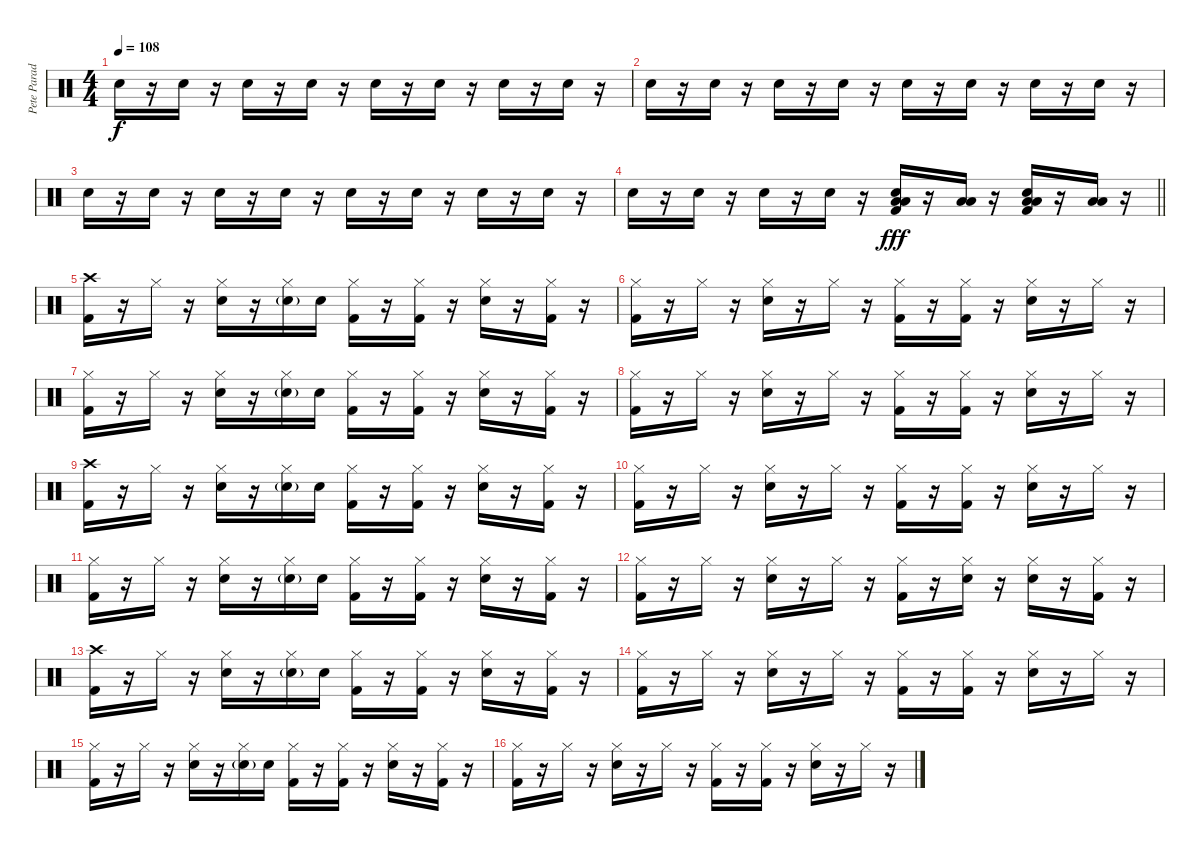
\track ("Pete Parada - Drums" "Pete Parad") {instrument percussion}
\staff {score}
\articulation defaults
\ts (4 4)
\tempo 108
\clef neutral
\ks c "Electric Snare (hit)".16{dy f}
r.16 "Electric Snare (hit)".16 r.16 "Electric Snare (hit)".16 r.16 "Electric Snare (hit)".16 r.16 "Electric Snare (hit)".16 r.16 "Electric Snare (hit)".16 r.16 "Electric Snare (hit)".16 r.16 "Electric Snare (hit)".16 r.16 |
"Electric Snare (hit)".16 r.16 "Electric Snare (hit)".16 r.16 "Electric Snare (hit)".16 r.16 "Electric Snare (hit)".16 r.16 "Electric Snare (hit)".16 r.16 "Electric Snare (hit)".16 r.16 "Electric Snare (hit)".16 r.16 "Electric Snare (hit)".16 r.16 |
"Electric Snare (hit)".16 r.16 "Electric Snare (hit)".16 r.16 "Electric Snare (hit)".16 r.16 "Electric Snare (hit)".16 r.16 "Electric Snare (hit)".16 r.16 "Electric Snare (hit)".16 r.16 "Electric Snare (hit)".16 r.16 "Electric Snare (hit)".16 r.16 |
\barLineRight lightlight "Electric Snare (hit)".16
r.16 "Electric Snare (hit)".16 r.16 "Electric Snare (hit)".16 r.16 "Electric Snare (hit)".16 r.16 ("Low Floor Tom (hit)" "Low Tom (hit)" "Electric Snare (hit)" "Kick (hit) 2").16{dy fff} r.16 ("Low Floor Tom (hit)" "Low Tom (hit)").16 r.16 ("Low Floor Tom (hit)" "Low Tom (hit)" "Electric Snare (hit)" "Kick (hit) 2").16 r.16 ("Low Floor Tom (hit)" "Low Tom (hit)").16 r.16 |
("Crash high (hit)" "Kick (hit) 2").16 r.16 "Hi-Hat (closed)".16 r.16 ("Hi-Hat (closed)" "Electric Snare (hit)").16 r.16 ("Hi-Hat (closed)" "Electric Snare (hit)"{g}).16 "Electric Snare (hit)".16 ("Hi-Hat (closed)" "Kick (hit) 2").16 r.16 ("Hi-Hat (closed)" "Kick (hit) 2").16 r.16 ("Hi-Hat (closed)" "Electric Snare (hit)").16 r.16 ("Hi-Hat (closed)" "Kick (hit) 2").16 r.16 |
("Hi-Hat (closed)" "Kick (hit) 2").16 r.16 "Hi-Hat (closed)".16 r.16 ("Hi-Hat (closed)" "Electric Snare (hit)").16 r.16 "Hi-Hat (closed)".16 r.16 ("Hi-Hat (closed)" "Kick (hit) 2").16 r.16 ("Hi-Hat (closed)" "Kick (hit) 2").16 r.16 ("Hi-Hat (closed)" "Electric Snare (hit)").16 r.16 "Hi-Hat (closed)".16 r.16 |
("Hi-Hat (closed)" "Kick (hit) 2").16 r.16 "Hi-Hat (closed)".16 r.16 ("Hi-Hat (closed)" "Electric Snare (hit)").16 r.16 ("Hi-Hat (closed)" "Electric Snare (hit)"{g}).16 "Electric Snare (hit)".16 ("Hi-Hat (closed)" "Kick (hit) 2").16 r.16 ("Hi-Hat (closed)" "Kick (hit) 2").16 r.16 ("Hi-Hat (closed)" "Electric Snare (hit)").16 r.16 ("Hi-Hat (closed)" "Kick (hit) 2").16 r.16 |
("Hi-Hat (closed)" "Kick (hit) 2").16 r.16 "Hi-Hat (closed)".16 r.16 ("Hi-Hat (closed)" "Electric Snare (hit)").16 r.16 "Hi-Hat (closed)".16 r.16 ("Hi-Hat (closed)" "Kick (hit) 2").16 r.16 ("Hi-Hat (closed)" "Kick (hit) 2").16 r.16 ("Hi-Hat (closed)" "Electric Snare (hit)").16 r.16 "Hi-Hat (closed)".16 r.16 |
("Crash high (hit)" "Kick (hit) 2").16 r.16 "Hi-Hat (closed)".16 r.16 ("Hi-Hat (closed)" "Electric Snare (hit)").16 r.16 ("Hi-Hat (closed)" "Electric Snare (hit)"{g}).16 "Electric Snare (hit)".16 ("Hi-Hat (closed)" "Kick (hit) 2").16 r.16 ("Hi-Hat (closed)" "Kick (hit) 2").16 r.16 ("Hi-Hat (closed)" "Electric Snare (hit)").16 r.16 ("Hi-Hat (closed)" "Kick (hit) 2").16 r.16 |
("Hi-Hat (closed)" "Kick (hit) 2").16 r.16 "Hi-Hat (closed)".16 r.16 ("Hi-Hat (closed)" "Electric Snare (hit)").16 r.16 "Hi-Hat (closed)".16 r.16 ("Hi-Hat (closed)" "Kick (hit) 2").16 r.16 ("Hi-Hat (closed)" "Kick (hit) 2").16 r.16 ("Hi-Hat (closed)" "Electric Snare (hit)").16 r.16 "Hi-Hat (closed)".16 r.16 |
("Hi-Hat (closed)" "Kick (hit) 2").16 r.16 "Hi-Hat (closed)".16 r.16 ("Hi-Hat (closed)" "Electric Snare (hit)").16 r.16 ("Hi-Hat (closed)" "Electric Snare (hit)"{g}).16 "Electric Snare (hit)".16 ("Hi-Hat (closed)" "Kick (hit) 2").16 r.16 ("Hi-Hat (closed)" "Kick (hit) 2").16 r.16 ("Hi-Hat (closed)" "Electric Snare (hit)").16 r.16 ("Hi-Hat (closed)" "Kick (hit) 2").16 r.16 |
("Hi-Hat (closed)" "Kick (hit) 2").16 r.16 "Hi-Hat (closed)".16 r.16 ("Hi-Hat (closed)" "Electric Snare (hit)").16 r.16 "Hi-Hat (closed)".16 r.16 ("Hi-Hat (closed)" "Kick (hit) 2").16 r.16 ("Hi-Hat (closed)" "Electric Snare (hit)").16 r.16 ("Hi-Hat (closed)" "Electric Snare (hit)").16 r.16 ("Hi-Hat (closed)" "Kick (hit) 2").16 r.16 |
("Crash high (hit)" "Kick (hit) 2").16 r.16 "Hi-Hat (closed)".16 r.16 ("Hi-Hat (closed)" "Electric Snare (hit)").16 r.16 ("Hi-Hat (closed)" "Electric Snare (hit)"{g}).16 "Electric Snare (hit)".16 ("Hi-Hat (closed)" "Kick (hit) 2").16 r.16 ("Hi-Hat (closed)" "Kick (hit) 2").16 r.16 ("Hi-Hat (closed)" "Electric Snare (hit)").16 r.16 ("Hi-Hat (closed)" "Kick (hit) 2").16 r.16 |
("Hi-Hat (closed)" "Kick (hit) 2").16 r.16 "Hi-Hat (closed)".16 r.16 ("Hi-Hat (closed)" "Electric Snare (hit)").16 r.16 "Hi-Hat (closed)".16 r.16 ("Hi-Hat (closed)" "Kick (hit) 2").16 r.16 ("Hi-Hat (closed)" "Kick (hit) 2").16 r.16 ("Hi-Hat (closed)" "Electric Snare (hit)").16 r.16 "Hi-Hat (closed)".16 r.16 |
("Hi-Hat (closed)" "Kick (hit) 2").16 r.16 "Hi-Hat (closed)".16 r.16 ("Hi-Hat (closed)" "Electric Snare (hit)").16 r.16 ("Hi-Hat (closed)" "Electric Snare (hit)"{g}).16 "Electric Snare (hit)".16 ("Hi-Hat (closed)" "Kick (hit) 2").16 r.16 ("Hi-Hat (closed)" "Kick (hit) 2").16 r.16 ("Hi-Hat (closed)" "Electric Snare (hit)").16 r.16 ("Hi-Hat (closed)" "Kick (hit) 2").16 r.16 |
("Hi-Hat (closed)" "Kick (hit) 2").16 r.16 "Hi-Hat (closed)".16 r.16 ("Hi-Hat (closed)" "Electric Snare (hit)").16 r.16 "Hi-Hat (closed)".16 r.16 ("Hi-Hat (closed)" "Kick (hit) 2").16 r.16 ("Hi-Hat (closed)" "Kick (hit) 2").16 r.16 ("Hi-Hat (closed)" "Electric Snare (hit)").16 r.16 "Hi-Hat (closed)".16 r.16
